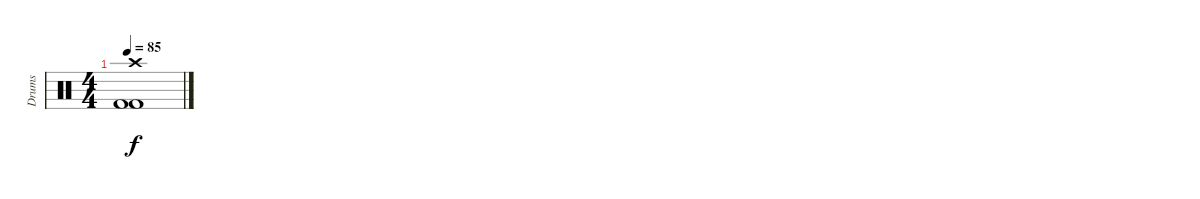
\track ("Drums" "Drums") {instrument percussion}
\staff {score}
\articulation defaults
\ts (4 4)
\tempo 85
\clef neutral
\ks c
("Crash high (hit)" "Kick (hit) 2" "Kick (hit) 2").1{dy f}
